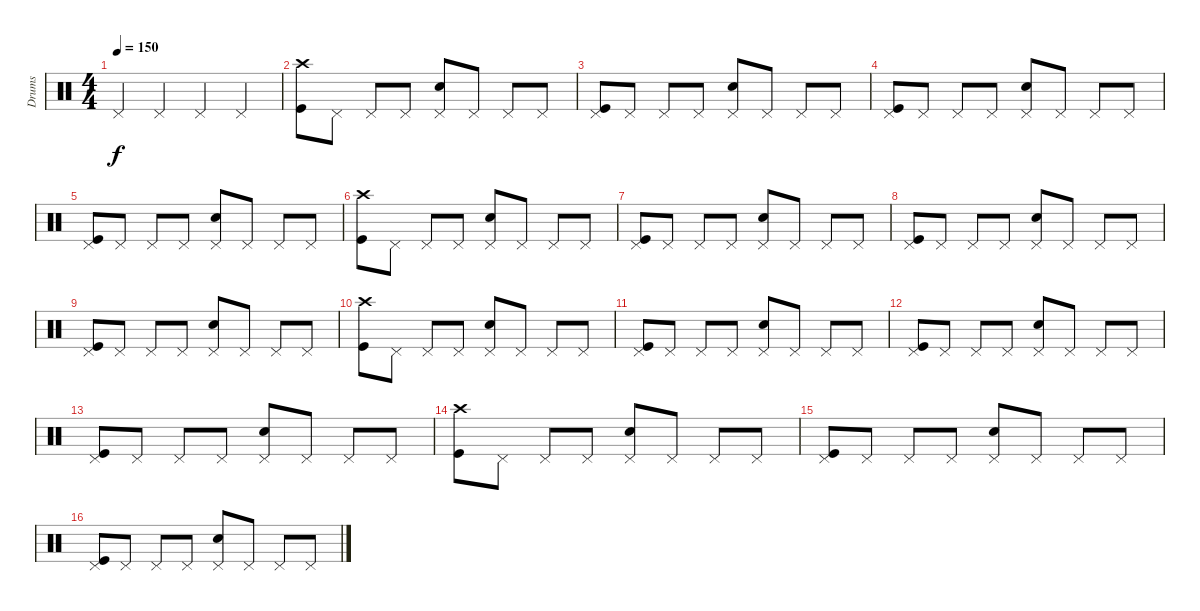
\track ("Drums" "Drums") {instrument percussion}
\staff {score}
\articulation defaults
\ts (4 4)
\tempo 150
\clef neutral
\ks c "Pedal Hi-Hat (hit)".4{dy f} "Pedal Hi-Hat (hit)".4 "Pedal Hi-Hat (hit)".4 "Pedal Hi-Hat (hit)".4
|
("Crash high (hit)" "Kick (hit)").8 "Pedal Hi-Hat (hit)".8 "Pedal Hi-Hat (hit)".8 "Pedal Hi-Hat (hit)".8 ("Pedal Hi-Hat (hit)" "Snare (hit) 2").8 "Pedal Hi-Hat (hit)".8 "Pedal Hi-Hat (hit)".8 "Pedal Hi-Hat (hit)".8 |
("Pedal Hi-Hat (hit)" "Kick (hit)").8 "Pedal Hi-Hat (hit)".8 "Pedal Hi-Hat (hit)".8 "Pedal Hi-Hat (hit)".8 ("Pedal Hi-Hat (hit)" "Snare (hit) 2").8 "Pedal Hi-Hat (hit)".8 "Pedal Hi-Hat (hit)".8 "Pedal Hi-Hat (hit)".8 |
("Pedal Hi-Hat (hit)" "Kick (hit)").8 "Pedal Hi-Hat (hit)".8 "Pedal Hi-Hat (hit)".8 "Pedal Hi-Hat (hit)".8 ("Pedal Hi-Hat (hit)" "Snare (hit) 2").8 "Pedal Hi-Hat (hit)".8 "Pedal Hi-Hat (hit)".8 "Pedal Hi-Hat (hit)".8 |
("Pedal Hi-Hat (hit)" "Kick (hit)").8 "Pedal Hi-Hat (hit)".8 "Pedal Hi-Hat (hit)".8 "Pedal Hi-Hat (hit)".8 ("Pedal Hi-Hat (hit)" "Snare (hit) 2").8 "Pedal Hi-Hat (hit)".8 "Pedal Hi-Hat (hit)".8 "Pedal Hi-Hat (hit)".8 |
("Crash high (hit)" "Kick (hit)").8 "Pedal Hi-Hat (hit)".8 "Pedal Hi-Hat (hit)".8 "Pedal Hi-Hat (hit)".8 ("Pedal Hi-Hat (hit)" "Snare (hit) 2").8 "Pedal Hi-Hat (hit)".8 "Pedal Hi-Hat (hit)".8 "Pedal Hi-Hat (hit)".8 |
("Pedal Hi-Hat (hit)" "Kick (hit)").8 "Pedal Hi-Hat (hit)".8 "Pedal Hi-Hat (hit)".8 "Pedal Hi-Hat (hit)".8 ("Pedal Hi-Hat (hit)" "Snare (hit) 2").8 "Pedal Hi-Hat (hit)".8 "Pedal Hi-Hat (hit)".8 "Pedal Hi-Hat (hit)".8 |
("Pedal Hi-Hat (hit)" "Kick (hit)").8 "Pedal Hi-Hat (hit)".8 "Pedal Hi-Hat (hit)".8 "Pedal Hi-Hat (hit)".8 ("Pedal Hi-Hat (hit)" "Snare (hit) 2").8 "Pedal Hi-Hat (hit)".8 "Pedal Hi-Hat (hit)".8 "Pedal Hi-Hat (hit)".8 |
("Pedal Hi-Hat (hit)" "Kick (hit)").8 "Pedal Hi-Hat (hit)".8 "Pedal Hi-Hat (hit)".8 "Pedal Hi-Hat (hit)".8 ("Pedal Hi-Hat (hit)" "Snare (hit) 2").8 "Pedal Hi-Hat (hit)".8 "Pedal Hi-Hat (hit)".8 "Pedal Hi-Hat (hit)".8 |
("Crash high (hit)" "Kick (hit)").8 "Pedal Hi-Hat (hit)".8 "Pedal Hi-Hat (hit)".8 "Pedal Hi-Hat (hit)".8 ("Pedal Hi-Hat (hit)" "Snare (hit) 2").8 "Pedal Hi-Hat (hit)".8 "Pedal Hi-Hat (hit)".8 "Pedal Hi-Hat (hit)".8 |
("Pedal Hi-Hat (hit)" "Kick (hit)").8 "Pedal Hi-Hat (hit)".8 "Pedal Hi-Hat (hit)".8 "Pedal Hi-Hat (hit)".8 ("Pedal Hi-Hat (hit)" "Snare (hit) 2").8 "Pedal Hi-Hat (hit)".8 "Pedal Hi-Hat (hit)".8 "Pedal Hi-Hat (hit)".8 |
("Pedal Hi-Hat (hit)" "Kick (hit)").8 "Pedal Hi-Hat (hit)".8 "Pedal Hi-Hat (hit)".8 "Pedal Hi-Hat (hit)".8 ("Pedal Hi-Hat (hit)" "Snare (hit) 2").8 "Pedal Hi-Hat (hit)".8 "Pedal Hi-Hat (hit)".8 "Pedal Hi-Hat (hit)".8 |
("Pedal Hi-Hat (hit)" "Kick (hit)").8 "Pedal Hi-Hat (hit)".8 "Pedal Hi-Hat (hit)".8 "Pedal Hi-Hat (hit)".8 ("Pedal Hi-Hat (hit)" "Snare (hit) 2").8 "Pedal Hi-Hat (hit)".8 "Pedal Hi-Hat (hit)".8 "Pedal Hi-Hat (hit)".8 |
("Crash high (hit)" "Kick (hit)").8 "Pedal Hi-Hat (hit)".8 "Pedal Hi-Hat (hit)".8 "Pedal Hi-Hat (hit)".8 ("Pedal Hi-Hat (hit)" "Snare (hit) 2").8 "Pedal Hi-Hat (hit)".8 "Pedal Hi-Hat (hit)".8 "Pedal Hi-Hat (hit)".8 |
("Pedal Hi-Hat (hit)" "Kick (hit)").8 "Pedal Hi-Hat (hit)".8 "Pedal Hi-Hat (hit)".8 "Pedal Hi-Hat (hit)".8 ("Pedal Hi-Hat (hit)" "Snare (hit) 2").8 "Pedal Hi-Hat (hit)".8 "Pedal Hi-Hat (hit)".8 "Pedal Hi-Hat (hit)".8 |
("Pedal Hi-Hat (hit)" "Kick (hit)").8 "Pedal Hi-Hat (hit)".8 "Pedal Hi-Hat (hit)".8 "Pedal Hi-Hat (hit)".8 ("Pedal Hi-Hat (hit)" "Snare (hit) 2").8 "Pedal Hi-Hat (hit)".8 "Pedal Hi-Hat (hit)".8 "Pedal Hi-Hat (hit)".8
